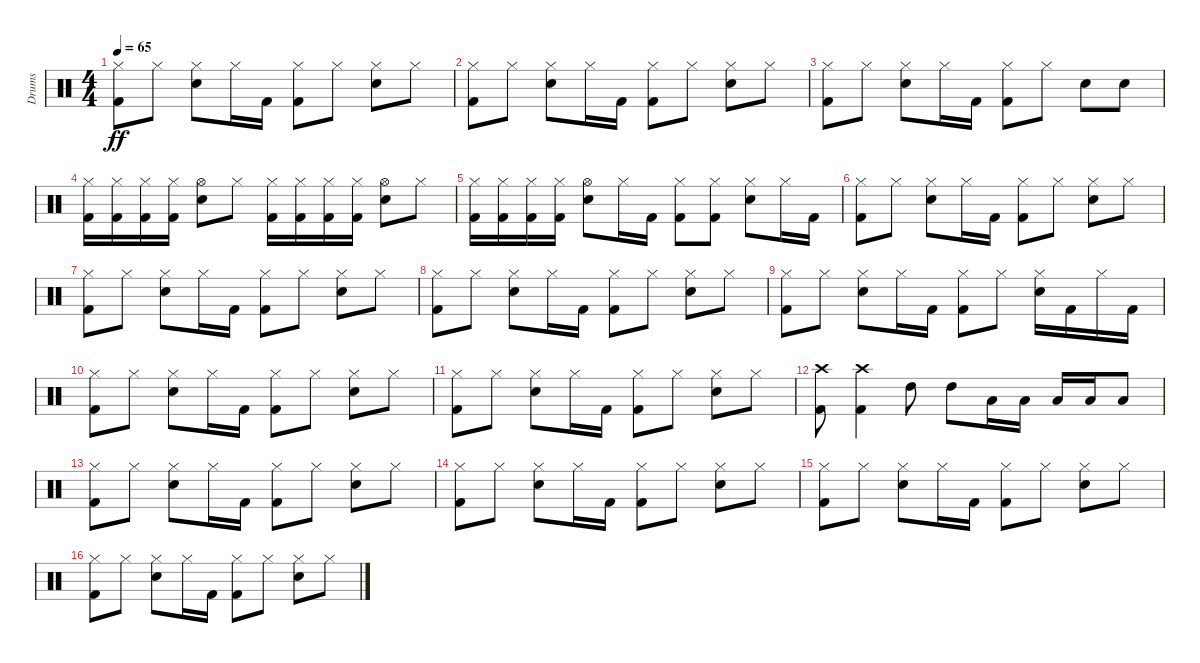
\track ("Drums" "Drums") {instrument percussion}
\staff {score}
\articulation defaults
\ts (4 4)
\tempo 65
\clef neutral
\ks c
("Hi-Hat (closed)" "Kick (hit) 2").8{dy ff} "Hi-Hat (closed)".8 ("Snare (hit) 2" "Hi-Hat (closed)").8 "Hi-Hat (closed)".16 "Kick (hit) 2".16 ("Hi-Hat (closed)" "Kick (hit) 2").8 "Hi-Hat (closed)".8 ("Hi-Hat (closed)" "Snare (hit) 2").8 "Hi-Hat (closed)".8 |
("Hi-Hat (closed)" "Kick (hit) 2").8 "Hi-Hat (closed)".8 ("Snare (hit) 2" "Hi-Hat (closed)").8 "Hi-Hat (closed)".16 "Kick (hit) 2".16 ("Hi-Hat (closed)" "Kick (hit) 2").8 "Hi-Hat (closed)".8 ("Hi-Hat (closed)" "Snare (hit) 2").8 "Hi-Hat (closed)".8 |
("Hi-Hat (closed)" "Kick (hit) 2").8 "Hi-Hat (closed)".8 ("Snare (hit) 2" "Hi-Hat (closed)").8 "Hi-Hat (closed)".16 "Kick (hit) 2".16 ("Hi-Hat (closed)" "Kick (hit) 2").8 "Hi-Hat (closed)".8 "Electric Snare (hit)".8 "Electric Snare (hit)".8 |
("Kick (hit) 2" "Hi-Hat (closed)").16 ("Kick (hit) 2" "Hi-Hat (closed)").16 ("Kick (hit) 2" "Hi-Hat (closed)").16 ("Kick (hit) 2" "Hi-Hat (closed)").16 ("Hi-Hat (open)" "Snare (hit) 2").8 "Hi-Hat (closed)".8 ("Kick (hit) 2" "Hi-Hat (closed)").16 ("Kick (hit) 2" "Hi-Hat (closed)").16 ("Kick (hit) 2" "Hi-Hat (closed)").16 ("Kick (hit) 2" "Hi-Hat (closed)").16 ("Hi-Hat (open)" "Snare (hit) 2").8 "Hi-Hat (closed)".8 |
("Kick (hit) 2" "Hi-Hat (closed)").16 ("Kick (hit) 2" "Hi-Hat (closed)").16 ("Kick (hit) 2" "Hi-Hat (closed)").16 ("Kick (hit) 2" "Hi-Hat (closed)").16 ("Hi-Hat (open)" "Snare (hit) 2").8 "Hi-Hat (closed)".16 "Kick (hit) 2".16 ("Hi-Hat (closed)" "Kick (hit) 2").8 ("Hi-Hat (closed)" "Kick (hit) 2").8 ("Snare (hit) 2" "Hi-Hat (closed)").8 "Hi-Hat (closed)".16 "Kick (hit) 2".16 |
("Hi-Hat (closed)" "Kick (hit) 2").8 "Hi-Hat (closed)".8 ("Snare (hit) 2" "Hi-Hat (closed)").8 "Hi-Hat (closed)".16 "Kick (hit) 2".16 ("Hi-Hat (closed)" "Kick (hit) 2").8 "Hi-Hat (closed)".8 ("Hi-Hat (closed)" "Snare (hit) 2").8 "Hi-Hat (closed)".8 |
("Hi-Hat (closed)" "Kick (hit) 2").8 "Hi-Hat (closed)".8 ("Snare (hit) 2" "Hi-Hat (closed)").8 "Hi-Hat (closed)".16 "Kick (hit) 2".16 ("Hi-Hat (closed)" "Kick (hit) 2").8 "Hi-Hat (closed)".8 ("Hi-Hat (closed)" "Snare (hit) 2").8 "Hi-Hat (closed)".8 |
("Hi-Hat (closed)" "Kick (hit) 2").8 "Hi-Hat (closed)".8 ("Snare (hit) 2" "Hi-Hat (closed)").8 "Hi-Hat (closed)".16 "Kick (hit) 2".16 ("Hi-Hat (closed)" "Kick (hit) 2").8 "Hi-Hat (closed)".8 ("Hi-Hat (closed)" "Snare (hit) 2").8 "Hi-Hat (closed)".8 |
("Hi-Hat (closed)" "Kick (hit) 2").8 "Hi-Hat (closed)".8 ("Snare (hit) 2" "Hi-Hat (closed)").8 "Hi-Hat (closed)".16 "Kick (hit) 2".16 ("Hi-Hat (closed)" "Kick (hit) 2").8 "Hi-Hat (closed)".8 ("Hi-Hat (closed)" "Snare (hit) 2").16 "Kick (hit) 2".16 "Hi-Hat (closed)".16 "Kick (hit) 2".16 |
("Hi-Hat (closed)" "Kick (hit) 2").8 "Hi-Hat (closed)".8 ("Snare (hit) 2" "Hi-Hat (closed)").8 "Hi-Hat (closed)".16 "Kick (hit) 2".16 ("Hi-Hat (closed)" "Kick (hit) 2").8 "Hi-Hat (closed)".8 ("Hi-Hat (closed)" "Snare (hit) 2").8 "Hi-Hat (closed)".8 |
("Hi-Hat (closed)" "Kick (hit) 2").8 "Hi-Hat (closed)".8 ("Snare (hit) 2" "Hi-Hat (closed)").8 "Hi-Hat (closed)".16 "Kick (hit) 2".16 ("Hi-Hat (closed)" "Kick (hit) 2").8 "Hi-Hat (closed)".8 ("Hi-Hat (closed)" "Snare (hit) 2").8 "Hi-Hat (closed)".8 |
("Crash high (hit)" "Kick (hit) 2").8 ("Crash high (hit)" "Kick (hit) 2").4 "High Tom (hit)".8 "High Tom (hit)".8 "Low Tom (hit)".16 "Low Tom (hit)".16 "Low Tom (hit)".16 "Low Floor Tom (hit)".16 "Low Floor Tom (hit)".8 |
("Hi-Hat (closed)" "Kick (hit) 2").8 "Hi-Hat (closed)".8 ("Snare (hit) 2" "Hi-Hat (closed)").8 "Hi-Hat (closed)".16 "Kick (hit) 2".16 ("Hi-Hat (closed)" "Kick (hit) 2").8 "Hi-Hat (closed)".8 ("Hi-Hat (closed)" "Snare (hit) 2").8 "Hi-Hat (closed)".8 |
("Hi-Hat (closed)" "Kick (hit) 2").8 "Hi-Hat (closed)".8 ("Snare (hit) 2" "Hi-Hat (closed)").8 "Hi-Hat (closed)".16 "Kick (hit) 2".16 ("Hi-Hat (closed)" "Kick (hit) 2").8 "Hi-Hat (closed)".8 ("Hi-Hat (closed)" "Snare (hit) 2").8 "Hi-Hat (closed)".8 |
("Hi-Hat (closed)" "Kick (hit) 2").8 "Hi-Hat (closed)".8 ("Snare (hit) 2" "Hi-Hat (closed)").8 "Hi-Hat (closed)".16 "Kick (hit) 2".16 ("Hi-Hat (closed)" "Kick (hit) 2").8 "Hi-Hat (closed)".8 ("Hi-Hat (closed)" "Snare (hit) 2").8 "Hi-Hat (closed)".8 |
("Hi-Hat (closed)" "Kick (hit) 2").8 "Hi-Hat (closed)".8 ("Snare (hit) 2" "Hi-Hat (closed)").8 "Hi-Hat (closed)".16 "Kick (hit) 2".16 ("Hi-Hat (closed)" "Kick (hit) 2").8 "Hi-Hat (closed)".8 ("Hi-Hat (closed)" "Snare (hit) 2").8 "Hi-Hat (closed)".8
